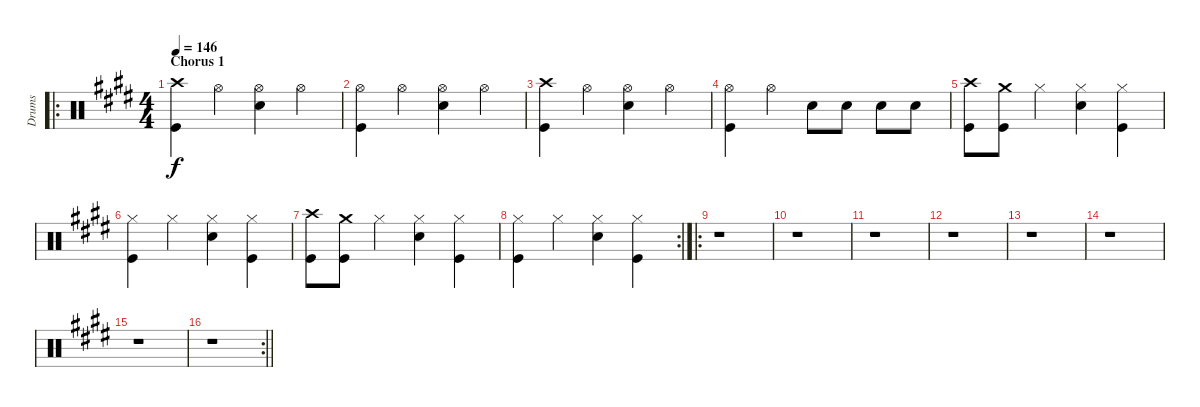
\track ("Drums" "Drums") {instrument percussion}
\staff {score}
\articulation defaults
\ro
\ts (4 4)
\section ("" "Chorus 1")
\tempo 146
\clef neutral
\ks e
("Crash high (hit)" "Kick (hit)").4{dy f} "Hi-Hat (open)".4 ("Hi-Hat (open)" "Snare (hit) 2").4 "Hi-Hat (open)".4 |
("Hi-Hat (open)" "Kick (hit)").4 "Hi-Hat (open)".4 ("Hi-Hat (open)" "Snare (hit) 2").4 "Hi-Hat (open)".4 |
("Crash high (hit)" "Kick (hit)").4 "Hi-Hat (open)".4 ("Hi-Hat (open)" "Snare (hit) 2").4 "Hi-Hat (open)".4 |
("Hi-Hat (open)" "Kick (hit)").4 "Hi-Hat (open)".4 "Snare (hit) 2".8 "Snare (hit) 2".8 "Snare (hit) 2".8 "Snare (hit) 2".8 |
("Crash high (hit)" "Kick (hit)").8 ("Crash medium (hit)" "Kick (hit)").8 "Hi-Hat (closed)".4 ("Hi-Hat (closed)" "Snare (hit) 2").4 ("Hi-Hat (closed)" "Kick (hit)").4 |
("Hi-Hat (closed)" "Kick (hit)").4 "Hi-Hat (closed)".4 ("Hi-Hat (closed)" "Snare (hit) 2").4 ("Hi-Hat (closed)" "Kick (hit)").4 |
("Crash high (hit)" "Kick (hit)").8 ("Crash medium (hit)" "Kick (hit)").8 "Hi-Hat (closed)".4 ("Hi-Hat (closed)" "Snare (hit) 2").4 ("Hi-Hat (closed)" "Kick (hit)").4 |
\rc 2
("Hi-Hat (closed)" "Kick (hit)").4 "Hi-Hat (closed)".4 ("Hi-Hat (closed)" "Snare (hit) 2").4 ("Hi-Hat (closed)" "Kick (hit)").4 |
\ro
r.1 |
r.1 |
r.1 |
r.1 |
r.1 |
r.1 |
r.1 |
\rc 2
\barLineRight lightlight
r.1
